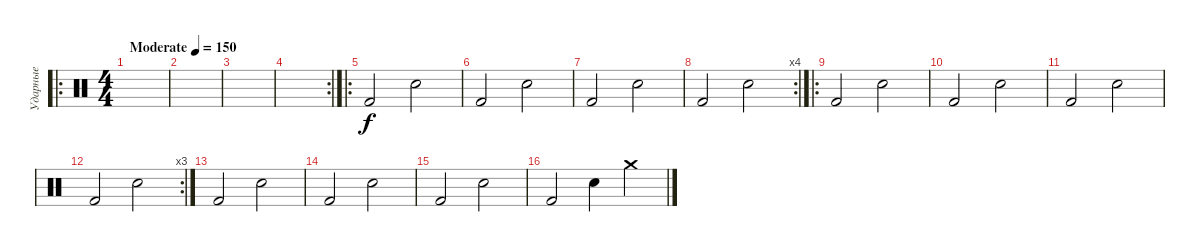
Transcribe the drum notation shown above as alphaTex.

\track ("Ударные" "Ударные") {instrument percussion}
\staff {score}
\articulation defaults
\ro
\ts (4 4)
\tempo (150 "Moderate")
\clef neutral
\ks c
|
|
|
\rc 2
|
\ro "Kick (hit) 2".2 "Snare (hit) 2".2
|
"Kick (hit) 2".2 "Snare (hit) 2".2 |
"Kick (hit) 2".2 "Snare (hit) 2".2 |
\rc 4 "Kick (hit) 2".2 "Snare (hit) 2".2
|
\ro "Kick (hit) 2".2 "Snare (hit) 2".2
|
"Kick (hit) 2".2 "Snare (hit) 2".2 |
"Kick (hit) 2".2 "Snare (hit) 2".2 |
\rc 3 "Kick (hit) 2".2 "Snare (hit) 2".2
|
"Kick (hit) 2".2 "Snare (hit) 2".2 |
"Kick (hit) 2".2 "Snare (hit) 2".2 |
"Kick (hit) 2".2 "Snare (hit) 2".2 |
"Kick (hit) 2".2 "Snare (hit) 2".4 "Crash medium (hit)".4
